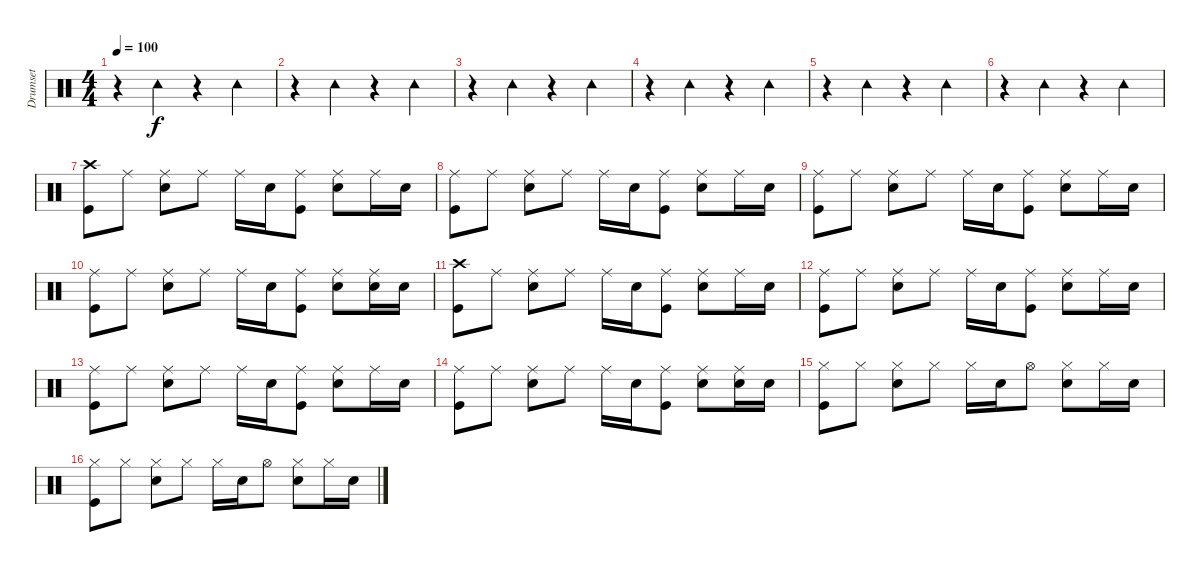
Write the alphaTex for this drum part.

\track ("Drumset" "Drumset") {instrument percussion}
\staff {score}
\articulation defaults
\ts (4 4)
\tempo 100
\clef neutral
\ks c
r.4{dy f} "Tambourine (hit)".4 r.4 "Tambourine (hit)".4 |
r.4 "Tambourine (hit)".4 r.4 "Tambourine (hit)".4 |
r.4 "Tambourine (hit)".4 r.4 "Tambourine (hit)".4 |
r.4 "Tambourine (hit)".4 r.4 "Tambourine (hit)".4 |
r.4 "Tambourine (hit)".4 r.4 "Tambourine (hit)".4 |
r.4 "Tambourine (hit)".4 r.4 "Tambourine (hit)".4 |
("Crash high (hit)" "Kick (hit)").8 "Ride (middle)".8 ("Ride (middle)" "Snare (hit) 2").8 "Ride (middle)".8 "Ride (middle)".16 "Snare (hit) 2".16 ("Ride (middle)" "Kick (hit)").8 ("Ride (middle)" "Snare (hit) 2").8 "Ride (middle)".16 "Snare (hit) 2".16 |
("Ride (middle)" "Kick (hit)").8 "Ride (middle)".8 ("Snare (hit) 2" "Ride (middle)").8 "Ride (middle)".8 "Ride (middle)".16 "Snare (hit) 2".16 ("Ride (middle)" "Kick (hit)").8 ("Ride (middle)" "Snare (hit) 2").8 "Ride (middle)".16 "Snare (hit) 2".16 |
("Ride (middle)" "Kick (hit)").8 "Ride (middle)".8 ("Ride (middle)" "Snare (hit) 2").8 "Ride (middle)".8 "Ride (middle)".16 "Snare (hit) 2".16 ("Ride (middle)" "Kick (hit)").8 ("Ride (middle)" "Snare (hit) 2").8 "Ride (middle)".16 "Snare (hit) 2".16 |
("Ride (middle)" "Kick (hit)").8 "Ride (middle)".8 ("Snare (hit) 2" "Ride (middle)").8 "Ride (middle)".8 "Ride (middle)".16 "Snare (hit) 2".16 ("Ride (middle)" "Kick (hit)").8 ("Ride (middle)" "Snare (hit) 2").8 ("Ride (middle)" "Snare (hit) 2").16 "Snare (hit) 2".16 |
("Crash high (hit)" "Kick (hit)").8 "Ride (middle)".8 ("Ride (middle)" "Snare (hit) 2").8 "Ride (middle)".8 "Ride (middle)".16 "Snare (hit) 2".16 ("Ride (middle)" "Kick (hit)").8 ("Ride (middle)" "Snare (hit) 2").8 "Ride (middle)".16 "Snare (hit) 2".16 |
("Ride (middle)" "Kick (hit)").8 "Ride (middle)".8 ("Snare (hit) 2" "Ride (middle)").8 "Ride (middle)".8 "Ride (middle)".16 "Snare (hit) 2".16 ("Ride (middle)" "Kick (hit)").8 ("Ride (middle)" "Snare (hit) 2").8 "Ride (middle)".16 "Snare (hit) 2".16 |
("Ride (middle)" "Kick (hit)").8 "Ride (middle)".8 ("Ride (middle)" "Snare (hit) 2").8 "Ride (middle)".8 "Ride (middle)".16 "Snare (hit) 2".16 ("Ride (middle)" "Kick (hit)").8 ("Ride (middle)" "Snare (hit) 2").8 "Ride (middle)".16 "Snare (hit) 2".16 |
("Ride (middle)" "Kick (hit)").8 "Ride (middle)".8 ("Snare (hit) 2" "Ride (middle)").8 "Ride (middle)".8 "Ride (middle)".16 "Snare (hit) 2".16 ("Ride (middle)" "Kick (hit)").8 ("Ride (middle)" "Snare (hit) 2").8 ("Ride (middle)" "Snare (hit) 2").16 "Snare (hit) 2".16 |
("Hi-Hat (closed)" "Kick (hit)").8 "Hi-Hat (closed)".8 ("Snare (hit) 2" "Hi-Hat (closed)").8 "Hi-Hat (closed)".8 "Hi-Hat (closed)".16 "Snare (hit) 2".16 "Hi-Hat (open)".8 ("Snare (hit) 2" "Hi-Hat (closed)").8 "Hi-Hat (closed)".16 "Snare (hit) 2".16 |
("Hi-Hat (closed)" "Kick (hit)").8 "Hi-Hat (closed)".8 ("Snare (hit) 2" "Hi-Hat (closed)").8 "Hi-Hat (closed)".8 "Hi-Hat (closed)".16 "Snare (hit) 2".16 "Hi-Hat (open)".8 ("Snare (hit) 2" "Hi-Hat (closed)").8 "Hi-Hat (closed)".16 "Snare (hit) 2".16
